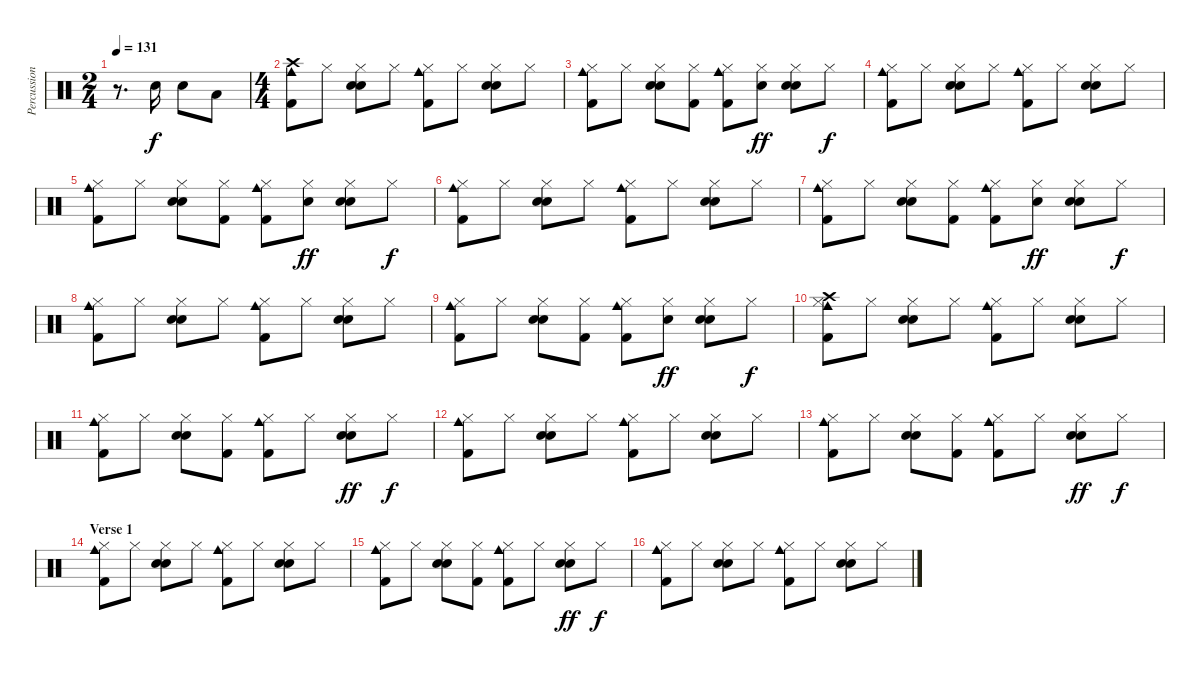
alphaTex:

\track ("Percussion" "Percussion") {instrument percussion}
\staff {score}
\articulation defaults
\ts (2 4)
\tempo 131
\clef neutral
\ks c
r.8{d dy f} "Electric Snare (hit)".16 "Electric Snare (hit)".8 "Low Floor Tom (hit)".8 |
\ts (4 4)
("Crash high (hit)" "Cowbell medium (hit)" "Kick (hit) 2").8 "Hi-Hat (closed)".8 ("Hand Clap (hit)" "Hi-Hat (closed)" "Electric Snare (hit)").8 "Hi-Hat (closed)".8 ("Hi-Hat (closed)" "Cowbell medium (hit)" "Kick (hit) 2").8 "Hi-Hat (closed)".8 ("Hand Clap (hit)" "Hi-Hat (closed)" "Electric Snare (hit)").8 "Hi-Hat (closed)".8 |
("Hi-Hat (closed)" "Cowbell medium (hit)" "Kick (hit) 2").8 "Hi-Hat (closed)".8 ("Hand Clap (hit)" "Hi-Hat (closed)" "Electric Snare (hit)").8 ("Hi-Hat (closed)" "Kick (hit) 2").8 ("Hi-Hat (closed)" "Cowbell medium (hit)" "Kick (hit) 2").8 ("Hand Clap (hit)" "Hi-Hat (closed)").8{dy ff} ("Hand Clap (hit)" "Hi-Hat (closed)" "Electric Snare (hit)").8 "Hi-Hat (closed)".8{dy f} |
("Hi-Hat (closed)" "Cowbell medium (hit)" "Kick (hit) 2").8 "Hi-Hat (closed)".8 ("Hand Clap (hit)" "Hi-Hat (closed)" "Electric Snare (hit)").8 "Hi-Hat (closed)".8 ("Hi-Hat (closed)" "Cowbell medium (hit)" "Kick (hit) 2").8 "Hi-Hat (closed)".8 ("Hand Clap (hit)" "Hi-Hat (closed)" "Electric Snare (hit)").8 "Hi-Hat (closed)".8 |
("Hi-Hat (closed)" "Cowbell medium (hit)" "Kick (hit) 2").8 "Hi-Hat (closed)".8 ("Hand Clap (hit)" "Hi-Hat (closed)" "Electric Snare (hit)").8 ("Hi-Hat (closed)" "Kick (hit) 2").8 ("Hi-Hat (closed)" "Cowbell medium (hit)" "Kick (hit) 2").8 ("Hand Clap (hit)" "Hi-Hat (closed)").8{dy ff} ("Hand Clap (hit)" "Hi-Hat (closed)" "Electric Snare (hit)").8 "Hi-Hat (closed)".8{dy f} |
("Hi-Hat (closed)" "Cowbell medium (hit)" "Kick (hit) 2").8 "Hi-Hat (closed)".8 ("Hand Clap (hit)" "Hi-Hat (closed)" "Electric Snare (hit)").8 "Hi-Hat (closed)".8 ("Hi-Hat (closed)" "Cowbell medium (hit)" "Kick (hit) 2").8 "Hi-Hat (closed)".8 ("Hand Clap (hit)" "Hi-Hat (closed)" "Electric Snare (hit)").8 "Hi-Hat (closed)".8 |
("Hi-Hat (closed)" "Cowbell medium (hit)" "Kick (hit) 2").8 "Hi-Hat (closed)".8 ("Hand Clap (hit)" "Hi-Hat (closed)" "Electric Snare (hit)").8 ("Hi-Hat (closed)" "Kick (hit) 2").8 ("Hi-Hat (closed)" "Cowbell medium (hit)" "Kick (hit) 2").8 ("Hand Clap (hit)" "Hi-Hat (closed)").8{dy ff} ("Hand Clap (hit)" "Hi-Hat (closed)" "Electric Snare (hit)").8 "Hi-Hat (closed)".8{dy f} |
("Hi-Hat (closed)" "Cowbell medium (hit)" "Kick (hit) 2").8 "Hi-Hat (closed)".8 ("Hand Clap (hit)" "Hi-Hat (closed)" "Electric Snare (hit)").8 "Hi-Hat (closed)".8 ("Hi-Hat (closed)" "Cowbell medium (hit)" "Kick (hit) 2").8 "Hi-Hat (closed)".8 ("Hand Clap (hit)" "Hi-Hat (closed)" "Electric Snare (hit)").8 "Hi-Hat (closed)".8 |
("Hi-Hat (closed)" "Cowbell medium (hit)" "Kick (hit) 2").8 "Hi-Hat (closed)".8 ("Hand Clap (hit)" "Hi-Hat (closed)" "Electric Snare (hit)").8 ("Hi-Hat (closed)" "Kick (hit) 2").8 ("Hi-Hat (closed)" "Cowbell medium (hit)" "Kick (hit) 2").8 ("Hand Clap (hit)" "Hi-Hat (closed)").8{dy ff} ("Hand Clap (hit)" "Hi-Hat (closed)" "Electric Snare (hit)").8 "Hi-Hat (closed)".8{dy f} |
("Crash high (hit)" "Hi-Hat (closed)" "Cowbell medium (hit)" "Kick (hit) 2").8 "Hi-Hat (closed)".8 ("Hand Clap (hit)" "Hi-Hat (closed)" "Electric Snare (hit)").8 "Hi-Hat (closed)".8 ("Hi-Hat (closed)" "Cowbell medium (hit)" "Kick (hit) 2").8 "Hi-Hat (closed)".8 ("Hand Clap (hit)" "Hi-Hat (closed)" "Electric Snare (hit)").8 "Hi-Hat (closed)".8 |
("Hi-Hat (closed)" "Cowbell medium (hit)" "Kick (hit) 2").8 "Hi-Hat (closed)".8 ("Hand Clap (hit)" "Hi-Hat (closed)" "Electric Snare (hit)").8 ("Hi-Hat (closed)" "Kick (hit) 2").8 ("Hi-Hat (closed)" "Cowbell medium (hit)" "Kick (hit) 2").8 "Hi-Hat (closed)".8 ("Hand Clap (hit)" "Hi-Hat (closed)" "Electric Snare (hit)").8{dy ff} "Hi-Hat (closed)".8{dy f} |
("Hi-Hat (closed)" "Cowbell medium (hit)" "Kick (hit) 2").8 "Hi-Hat (closed)".8 ("Hand Clap (hit)" "Hi-Hat (closed)" "Electric Snare (hit)").8 "Hi-Hat (closed)".8 ("Hi-Hat (closed)" "Cowbell medium (hit)" "Kick (hit) 2").8 "Hi-Hat (closed)".8 ("Hand Clap (hit)" "Hi-Hat (closed)" "Electric Snare (hit)").8 "Hi-Hat (closed)".8 |
("Hi-Hat (closed)" "Cowbell medium (hit)" "Kick (hit) 2").8 "Hi-Hat (closed)".8 ("Hand Clap (hit)" "Hi-Hat (closed)" "Electric Snare (hit)").8 ("Hi-Hat (closed)" "Kick (hit) 2").8 ("Hi-Hat (closed)" "Cowbell medium (hit)" "Kick (hit) 2").8 "Hi-Hat (closed)".8 ("Hand Clap (hit)" "Hi-Hat (closed)" "Electric Snare (hit)").8{dy ff} "Hi-Hat (closed)".8{dy f} |
\section ("" "Verse 1")
("Hi-Hat (closed)" "Cowbell medium (hit)" "Kick (hit) 2").8 "Hi-Hat (closed)".8 ("Hand Clap (hit)" "Hi-Hat (closed)" "Electric Snare (hit)").8 "Hi-Hat (closed)".8 ("Hi-Hat (closed)" "Cowbell medium (hit)" "Kick (hit) 2").8 "Hi-Hat (closed)".8 ("Hand Clap (hit)" "Hi-Hat (closed)" "Electric Snare (hit)").8 "Hi-Hat (closed)".8 |
("Hi-Hat (closed)" "Cowbell medium (hit)" "Kick (hit) 2").8 "Hi-Hat (closed)".8 ("Hand Clap (hit)" "Hi-Hat (closed)" "Electric Snare (hit)").8 ("Hi-Hat (closed)" "Kick (hit) 2").8 ("Hi-Hat (closed)" "Cowbell medium (hit)" "Kick (hit) 2").8 "Hi-Hat (closed)".8 ("Hand Clap (hit)" "Hi-Hat (closed)" "Electric Snare (hit)").8{dy ff} "Hi-Hat (closed)".8{dy f} |
("Hi-Hat (closed)" "Cowbell medium (hit)" "Kick (hit) 2").8 "Hi-Hat (closed)".8 ("Hand Clap (hit)" "Hi-Hat (closed)" "Electric Snare (hit)").8 "Hi-Hat (closed)".8 ("Hi-Hat (closed)" "Cowbell medium (hit)" "Kick (hit) 2").8 "Hi-Hat (closed)".8 ("Hand Clap (hit)" "Hi-Hat (closed)" "Electric Snare (hit)").8 "Hi-Hat (closed)".8
